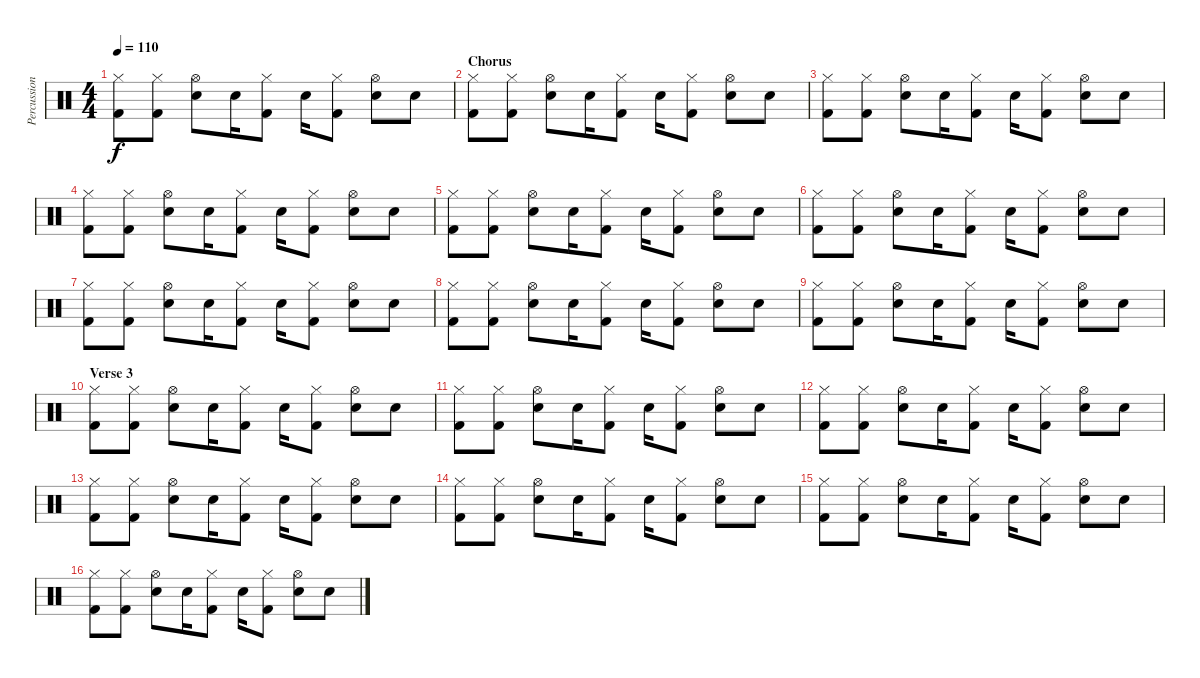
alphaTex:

\track ("Percussion" "Percussion") {instrument percussion}
\staff {score}
\articulation defaults
\ts (4 4)
\tempo 110
\clef neutral
\ks c
("Hi-Hat (closed)" "Kick (hit) 2").8{dy f} ("Hi-Hat (closed)" "Kick (hit) 2").8 ("Hi-Hat (open)" "Electric Snare (hit)").8 "Electric Snare (hit)".16 ("Hi-Hat (closed)" "Kick (hit) 2").8 "Electric Snare (hit)".16 ("Hi-Hat (closed)" "Kick (hit) 2").8 ("Hi-Hat (open)" "Electric Snare (hit)").8 "Electric Snare (hit)".8 |
\section ("" "Chorus")
("Hi-Hat (closed)" "Kick (hit) 2").8 ("Hi-Hat (closed)" "Kick (hit) 2").8 ("Hi-Hat (open)" "Electric Snare (hit)").8 "Electric Snare (hit)".16 ("Hi-Hat (closed)" "Kick (hit) 2").8 "Electric Snare (hit)".16 ("Hi-Hat (closed)" "Kick (hit) 2").8 ("Hi-Hat (open)" "Electric Snare (hit)").8 "Electric Snare (hit)".8 |
("Hi-Hat (closed)" "Kick (hit) 2").8 ("Hi-Hat (closed)" "Kick (hit) 2").8 ("Hi-Hat (open)" "Electric Snare (hit)").8 "Electric Snare (hit)".16 ("Hi-Hat (closed)" "Kick (hit) 2").8 "Electric Snare (hit)".16 ("Hi-Hat (closed)" "Kick (hit) 2").8 ("Hi-Hat (open)" "Electric Snare (hit)").8 "Electric Snare (hit)".8 |
("Hi-Hat (closed)" "Kick (hit) 2").8 ("Hi-Hat (closed)" "Kick (hit) 2").8 ("Hi-Hat (open)" "Electric Snare (hit)").8 "Electric Snare (hit)".16 ("Hi-Hat (closed)" "Kick (hit) 2").8 "Electric Snare (hit)".16 ("Hi-Hat (closed)" "Kick (hit) 2").8 ("Hi-Hat (open)" "Electric Snare (hit)").8 "Electric Snare (hit)".8 |
("Hi-Hat (closed)" "Kick (hit) 2").8 ("Hi-Hat (closed)" "Kick (hit) 2").8 ("Hi-Hat (open)" "Electric Snare (hit)").8 "Electric Snare (hit)".16 ("Hi-Hat (closed)" "Kick (hit) 2").8 "Electric Snare (hit)".16 ("Hi-Hat (closed)" "Kick (hit) 2").8 ("Hi-Hat (open)" "Electric Snare (hit)").8 "Electric Snare (hit)".8 |
("Hi-Hat (closed)" "Kick (hit) 2").8 ("Hi-Hat (closed)" "Kick (hit) 2").8 ("Hi-Hat (open)" "Electric Snare (hit)").8 "Electric Snare (hit)".16 ("Hi-Hat (closed)" "Kick (hit) 2").8 "Electric Snare (hit)".16 ("Hi-Hat (closed)" "Kick (hit) 2").8 ("Hi-Hat (open)" "Electric Snare (hit)").8 "Electric Snare (hit)".8 |
("Hi-Hat (closed)" "Kick (hit) 2").8 ("Hi-Hat (closed)" "Kick (hit) 2").8 ("Hi-Hat (open)" "Electric Snare (hit)").8 "Electric Snare (hit)".16 ("Hi-Hat (closed)" "Kick (hit) 2").8 "Electric Snare (hit)".16 ("Hi-Hat (closed)" "Kick (hit) 2").8 ("Hi-Hat (open)" "Electric Snare (hit)").8 "Electric Snare (hit)".8 |
("Hi-Hat (closed)" "Kick (hit) 2").8 ("Hi-Hat (closed)" "Kick (hit) 2").8 ("Hi-Hat (open)" "Electric Snare (hit)").8 "Electric Snare (hit)".16 ("Hi-Hat (closed)" "Kick (hit) 2").8 "Electric Snare (hit)".16 ("Hi-Hat (closed)" "Kick (hit) 2").8 ("Hi-Hat (open)" "Electric Snare (hit)").8 "Electric Snare (hit)".8 |
("Hi-Hat (closed)" "Kick (hit) 2").8 ("Hi-Hat (closed)" "Kick (hit) 2").8 ("Hi-Hat (open)" "Electric Snare (hit)").8 "Electric Snare (hit)".16 ("Hi-Hat (closed)" "Kick (hit) 2").8 "Electric Snare (hit)".16 ("Hi-Hat (closed)" "Kick (hit) 2").8 ("Hi-Hat (open)" "Electric Snare (hit)").8 "Electric Snare (hit)".8 |
\section ("" "Verse 3")
("Hi-Hat (closed)" "Kick (hit) 2").8 ("Hi-Hat (closed)" "Kick (hit) 2").8 ("Hi-Hat (open)" "Electric Snare (hit)").8 "Electric Snare (hit)".16 ("Hi-Hat (closed)" "Kick (hit) 2").8 "Electric Snare (hit)".16 ("Hi-Hat (closed)" "Kick (hit) 2").8 ("Hi-Hat (open)" "Electric Snare (hit)").8 "Electric Snare (hit)".8 |
("Hi-Hat (closed)" "Kick (hit) 2").8 ("Hi-Hat (closed)" "Kick (hit) 2").8 ("Hi-Hat (open)" "Electric Snare (hit)").8 "Electric Snare (hit)".16 ("Hi-Hat (closed)" "Kick (hit) 2").8 "Electric Snare (hit)".16 ("Hi-Hat (closed)" "Kick (hit) 2").8 ("Hi-Hat (open)" "Electric Snare (hit)").8 "Electric Snare (hit)".8 |
("Hi-Hat (closed)" "Kick (hit) 2").8 ("Hi-Hat (closed)" "Kick (hit) 2").8 ("Hi-Hat (open)" "Electric Snare (hit)").8 "Electric Snare (hit)".16 ("Hi-Hat (closed)" "Kick (hit) 2").8 "Electric Snare (hit)".16 ("Hi-Hat (closed)" "Kick (hit) 2").8 ("Hi-Hat (open)" "Electric Snare (hit)").8 "Electric Snare (hit)".8 |
("Hi-Hat (closed)" "Kick (hit) 2").8 ("Hi-Hat (closed)" "Kick (hit) 2").8 ("Hi-Hat (open)" "Electric Snare (hit)").8 "Electric Snare (hit)".16 ("Hi-Hat (closed)" "Kick (hit) 2").8 "Electric Snare (hit)".16 ("Hi-Hat (closed)" "Kick (hit) 2").8 ("Hi-Hat (open)" "Electric Snare (hit)").8 "Electric Snare (hit)".8 |
("Hi-Hat (closed)" "Kick (hit) 2").8 ("Hi-Hat (closed)" "Kick (hit) 2").8 ("Hi-Hat (open)" "Electric Snare (hit)").8 "Electric Snare (hit)".16 ("Hi-Hat (closed)" "Kick (hit) 2").8 "Electric Snare (hit)".16 ("Hi-Hat (closed)" "Kick (hit) 2").8 ("Hi-Hat (open)" "Electric Snare (hit)").8 "Electric Snare (hit)".8 |
("Hi-Hat (closed)" "Kick (hit) 2").8 ("Hi-Hat (closed)" "Kick (hit) 2").8 ("Hi-Hat (open)" "Electric Snare (hit)").8 "Electric Snare (hit)".16 ("Hi-Hat (closed)" "Kick (hit) 2").8 "Electric Snare (hit)".16 ("Hi-Hat (closed)" "Kick (hit) 2").8 ("Hi-Hat (open)" "Electric Snare (hit)").8 "Electric Snare (hit)".8 |
("Hi-Hat (closed)" "Kick (hit) 2").8 ("Hi-Hat (closed)" "Kick (hit) 2").8 ("Hi-Hat (open)" "Electric Snare (hit)").8 "Electric Snare (hit)".16 ("Hi-Hat (closed)" "Kick (hit) 2").8 "Electric Snare (hit)".16 ("Hi-Hat (closed)" "Kick (hit) 2").8 ("Hi-Hat (open)" "Electric Snare (hit)").8 "Electric Snare (hit)".8
